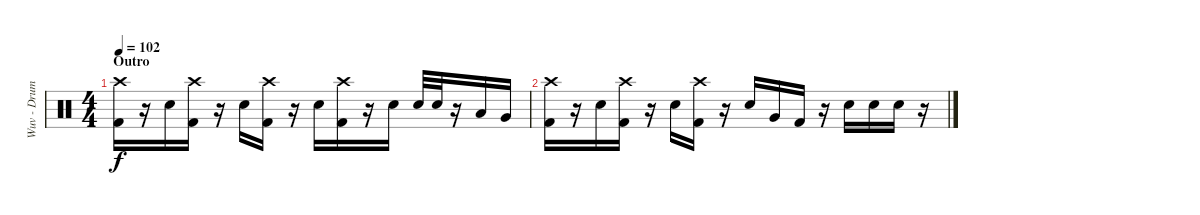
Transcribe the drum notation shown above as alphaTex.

\track ("Wuv - Drums" "Wuv - Drum") {instrument percussion}
\staff {score}
\articulation defaults
\ts (4 4)
\section ("" "Outro")
\tempo 102
\clef neutral
\ks c
("Crash high (hit)" "Kick (hit) 2").16{dy f} r.16 "Snare (hit) 2".16 ("Crash high (hit)" "Kick (hit) 2").16 r.16 "Snare (hit) 2".16 ("Crash high (hit)" "Kick (hit) 2").16 r.16 "Snare (hit) 2".16 ("Crash high (hit)" "Kick (hit) 2").16 r.16 "Snare (hit) 2".16 "Snare (hit) 2".32 "Snare (hit) 2".32 r.16 "Low Tom (hit)".16 "Very Low Tom (hit)".16 |
("Crash high (hit)" "Kick (hit) 2").16 r.16 "Snare (hit) 2".16 ("Crash high (hit)" "Kick (hit) 2").16 r.16 "Snare (hit) 2".16 ("Crash high (hit)" "Kick (hit) 2").16 r.16 "Snare (hit) 2".16 "Very Low Tom (hit)".16 "Kick (hit) 2".16 r.16 "Snare (hit) 2".16 "Snare (hit) 2".16 "Snare (hit) 2".16 r.16
